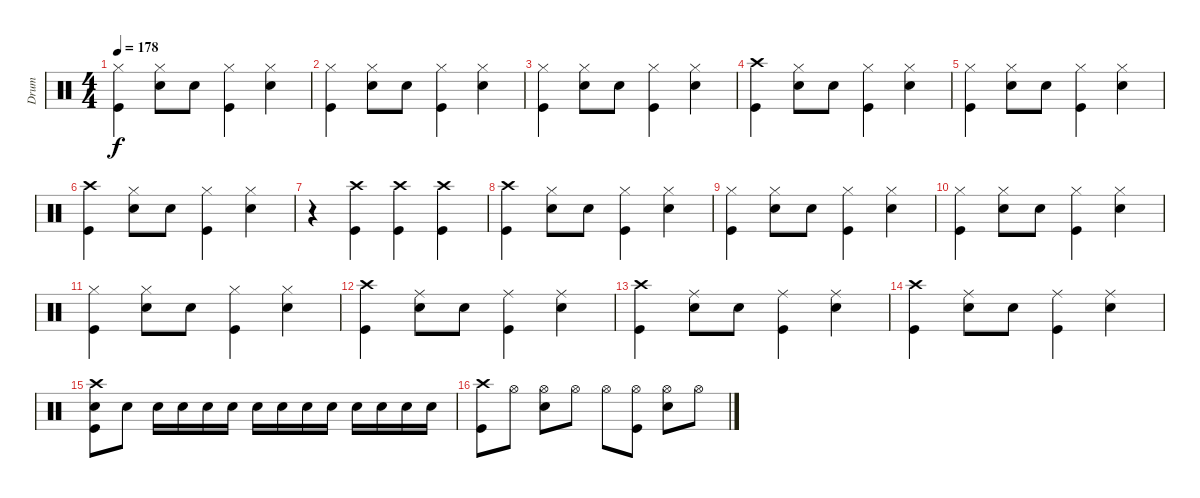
\track ("Drum" "Drum") {instrument percussion}
\staff {score}
\articulation defaults
\ts (4 4)
\tempo 178
\clef neutral
\ks c
("Hi-Hat (closed)" "Kick (hit)").4{dy f} ("Hi-Hat (closed)" "Snare (hit) 2").8 "Snare (hit) 2".8 ("Hi-Hat (closed)" "Kick (hit)").4 ("Hi-Hat (closed)" "Snare (hit) 2").4 |
("Hi-Hat (closed)" "Kick (hit)").4 ("Hi-Hat (closed)" "Snare (hit) 2").8 "Snare (hit) 2".8 ("Hi-Hat (closed)" "Kick (hit)").4 ("Hi-Hat (closed)" "Snare (hit) 2").4 |
("Hi-Hat (closed)" "Kick (hit)").4 ("Hi-Hat (closed)" "Snare (hit) 2").8 "Snare (hit) 2".8 ("Hi-Hat (closed)" "Kick (hit)").4 ("Hi-Hat (closed)" "Snare (hit) 2").4 |
("Crash high (hit)" "Kick (hit)").4 ("Hi-Hat (closed)" "Snare (hit) 2").8 "Snare (hit) 2".8 ("Hi-Hat (closed)" "Kick (hit)").4 ("Hi-Hat (closed)" "Snare (hit) 2").4 |
("Hi-Hat (closed)" "Kick (hit)").4 ("Hi-Hat (closed)" "Snare (hit) 2").8 "Snare (hit) 2".8 ("Hi-Hat (closed)" "Kick (hit)").4 ("Hi-Hat (closed)" "Snare (hit) 2").4 |
("Crash high (hit)" "Kick (hit)").4 ("Hi-Hat (closed)" "Snare (hit) 2").8 "Snare (hit) 2".8 ("Hi-Hat (closed)" "Kick (hit)").4 ("Hi-Hat (closed)" "Snare (hit) 2").4 |
r.4 ("Crash high (hit)" "Kick (hit)").4 ("Crash high (hit)" "Kick (hit)").4 ("Crash high (hit)" "Kick (hit)").4 |
("Crash high (hit)" "Kick (hit)").4 ("Hi-Hat (closed)" "Snare (hit) 2").8 "Snare (hit) 2".8 ("Hi-Hat (closed)" "Kick (hit)").4 ("Hi-Hat (closed)" "Snare (hit) 2").4 |
("Hi-Hat (closed)" "Kick (hit)").4 ("Hi-Hat (closed)" "Snare (hit) 2").8 "Snare (hit) 2".8 ("Hi-Hat (closed)" "Kick (hit)").4 ("Hi-Hat (closed)" "Snare (hit) 2").4 |
("Hi-Hat (closed)" "Kick (hit)").4 ("Hi-Hat (closed)" "Snare (hit) 2").8 "Snare (hit) 2".8 ("Hi-Hat (closed)" "Kick (hit)").4 ("Hi-Hat (closed)" "Snare (hit) 2").4 |
("Hi-Hat (closed)" "Kick (hit)").4 ("Hi-Hat (closed)" "Snare (hit) 2").8 "Snare (hit) 2".8 ("Hi-Hat (closed)" "Kick (hit)").4 ("Hi-Hat (closed)" "Snare (hit) 2").4 |
("Crash high (hit)" "Kick (hit)").4 ("Ride (middle)" "Snare (hit) 2").8 "Snare (hit) 2".8 ("Ride (middle)" "Kick (hit)").4 ("Ride (middle)" "Snare (hit) 2").4 |
("Crash high (hit)" "Kick (hit)").4 ("Ride (middle)" "Snare (hit) 2").8 "Snare (hit) 2".8 ("Ride (middle)" "Kick (hit)").4 ("Ride (middle)" "Snare (hit) 2").4 |
("Crash high (hit)" "Kick (hit)").4 ("Ride (middle)" "Snare (hit) 2").8 "Snare (hit) 2".8 ("Ride (middle)" "Kick (hit)").4 ("Ride (middle)" "Snare (hit) 2").4 |
("Crash high (hit)" "Snare (hit) 2" "Kick (hit)").8 "Snare (hit) 2".8 "Snare (hit) 2".16 "Snare (hit) 2".16 "Snare (hit) 2".16 "Snare (hit) 2".16 "Snare (hit) 2".16 "Snare (hit) 2".16 "Snare (hit) 2".16 "Snare (hit) 2".16 "Snare (hit) 2".16 "Snare (hit) 2".16 "Snare (hit) 2".16 "Snare (hit) 2".16 |
("Crash high (hit)" "Kick (hit)").8 "Hi-Hat (open)".8 ("Hi-Hat (open)" "Snare (hit) 2").8 "Hi-Hat (open)".8 "Hi-Hat (open)".8 ("Hi-Hat (open)" "Kick (hit)").8 ("Hi-Hat (open)" "Snare (hit) 2").8 "Hi-Hat (open)".8
